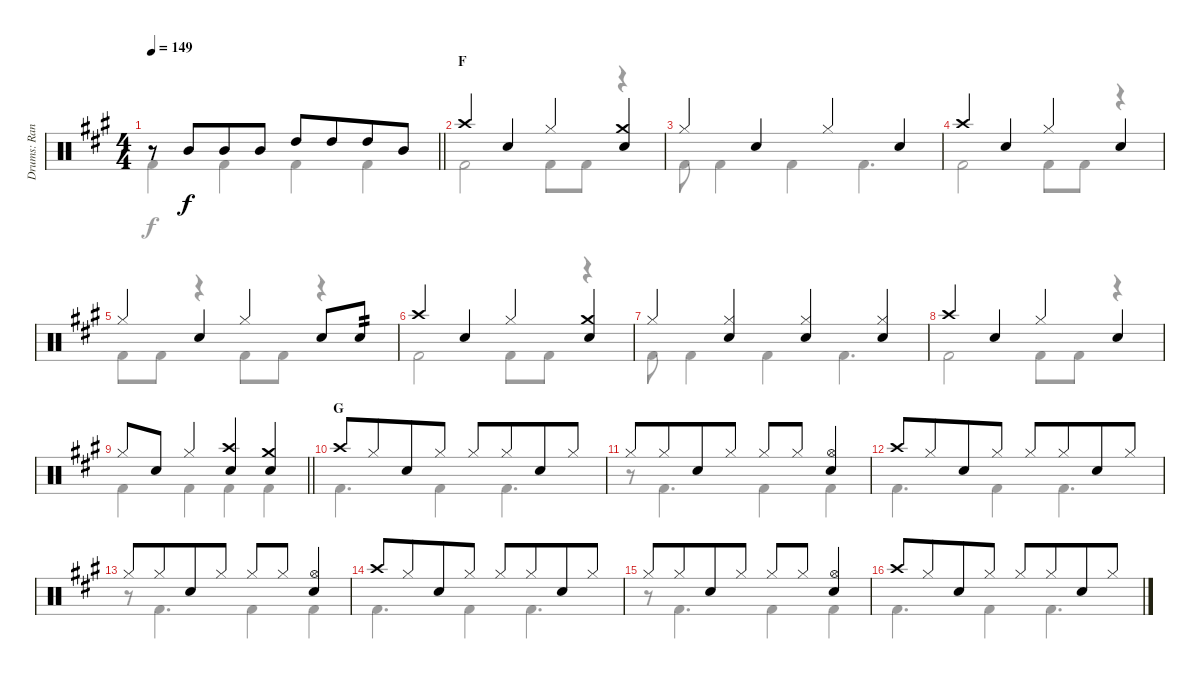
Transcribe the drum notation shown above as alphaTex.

\track ("Drums: Randy" "Drums: Ran") {instrument percussion}
\staff {score}
\articulation defaults
\voice
\ts (4 4)
\tempo 149
\clef neutral
\barLineRight lightlight
\ks a
r.8{dy f} "Mid Tom (hit)".8{beam merge} "Mid Tom (hit)".8 "Mid Tom (hit)".8 "High Tom (hit)".8 "High Tom (hit)".8{beam merge} "High Tom (hit)".8 "Mid Tom (hit)".8 |
\section ("" "F")
"Crash high (hit)".4 "Snare (hit) 2".4 "Hi-Hat (closed)".4 ("Crash medium (hit)" "Snare (hit) 2").4 |
"Hi-Hat (closed)".4 "Snare (hit) 2".4 "Hi-Hat (closed)".4 "Snare (hit) 2".4 |
"Crash high (hit)".4 "Snare (hit) 2".4 "Hi-Hat (closed)".4 "Snare (hit) 2".4 |
"Hi-Hat (closed)".4 "Snare (hit) 2".4 "Hi-Hat (closed)".4 "Snare (hit) 2".8 "Snare (hit) 2".8{tp 2} |
"Crash high (hit)".4 "Snare (hit) 2".4 "Hi-Hat (closed)".4 ("Crash medium (hit)" "Snare (hit) 2").4 |
"Hi-Hat (closed)".4 ("Hi-Hat (closed)" "Snare (hit) 2").4 ("Hi-Hat (closed)" "Snare (hit) 2").4 ("Hi-Hat (closed)" "Snare (hit) 2").4 |
"Crash high (hit)".4 "Snare (hit) 2".4 "Hi-Hat (closed)".4 "Snare (hit) 2".4 |
\barLineRight lightlight "Hi-Hat (closed)".8 "Snare (hit) 2".8 "Hi-Hat (closed)".4
("Crash high (hit)" "Snare (hit) 2").4 ("Crash medium (hit)" "Snare (hit) 2").4 |
\section ("" "G")
"Crash high (hit)".8 "Hi-Hat (closed)".8{beam merge} "Snare (hit) 2".8 "Hi-Hat (closed)".8 "Hi-Hat (closed)".8 "Hi-Hat (closed)".8{beam merge} "Snare (hit) 2".8 "Hi-Hat (closed)".8 |
"Hi-Hat (closed)".8 "Hi-Hat (closed)".8{beam merge} "Snare (hit) 2".8 "Hi-Hat (closed)".8 "Hi-Hat (closed)".8 "Hi-Hat (closed)".8 ("Hi-Hat (open)" "Snare (hit) 2").4 |
"Crash high (hit)".8 "Hi-Hat (closed)".8{beam merge} "Snare (hit) 2".8 "Hi-Hat (closed)".8 "Hi-Hat (closed)".8 "Hi-Hat (closed)".8{beam merge} "Snare (hit) 2".8 "Hi-Hat (closed)".8 |
"Hi-Hat (closed)".8 "Hi-Hat (closed)".8{beam merge} "Snare (hit) 2".8 "Hi-Hat (closed)".8 "Hi-Hat (closed)".8 "Hi-Hat (closed)".8 ("Hi-Hat (open)" "Snare (hit) 2").4 |
"Crash high (hit)".8 "Hi-Hat (closed)".8{beam merge} "Snare (hit) 2".8 "Hi-Hat (closed)".8 "Hi-Hat (closed)".8 "Hi-Hat (closed)".8{beam merge} "Snare (hit) 2".8 "Hi-Hat (closed)".8 |
"Hi-Hat (closed)".8 "Hi-Hat (closed)".8{beam merge} "Snare (hit) 2".8 "Hi-Hat (closed)".8 "Hi-Hat (closed)".8 "Hi-Hat (closed)".8 ("Hi-Hat (open)" "Snare (hit) 2").4 |
"Crash high (hit)".8 "Hi-Hat (closed)".8{beam merge} "Snare (hit) 2".8 "Hi-Hat (closed)".8 "Hi-Hat (closed)".8 "Hi-Hat (closed)".8{beam merge} "Snare (hit) 2".8 "Hi-Hat (closed)".8
\voice
\clef neutral
\ottava regular
\simile none
\barLineRight lightlight
\ks a "Kick (hit) 2".4{dy f} "Kick (hit) 2".4 "Kick (hit) 2".4 "Kick (hit) 2".4
|
"Kick (hit) 2".2 "Kick (hit) 2".8 "Kick (hit) 2".8 r.4 |
"Kick (hit) 2".8 "Kick (hit) 2".4 "Kick (hit) 2".4 "Kick (hit) 2".4{d} |
"Kick (hit) 2".2 "Kick (hit) 2".8 "Kick (hit) 2".8 r.4 |
"Kick (hit) 2".8 "Kick (hit) 2".8 r.4 "Kick (hit) 2".8 "Kick (hit) 2".8 r.4 |
"Kick (hit) 2".2 "Kick (hit) 2".8 "Kick (hit) 2".8 r.4 |
"Kick (hit) 2".8 "Kick (hit) 2".4 "Kick (hit) 2".4 "Kick (hit) 2".4{d} |
"Kick (hit) 2".2 "Kick (hit) 2".8 "Kick (hit) 2".8 r.4 |
\barLineRight lightlight "Kick (hit) 2".4 "Kick (hit) 2".4 "Kick (hit) 2".4 "Kick (hit) 2".4
|
"Kick (hit) 2".4{d} "Kick (hit) 2".4 "Kick (hit) 2".4{d} |
r.8 "Kick (hit) 2".4{d} "Kick (hit) 2".4 "Kick (hit) 2".4 |
"Kick (hit) 2".4{d} "Kick (hit) 2".4 "Kick (hit) 2".4{d} |
r.8 "Kick (hit) 2".4{d} "Kick (hit) 2".4 "Kick (hit) 2".4 |
"Kick (hit) 2".4{d} "Kick (hit) 2".4 "Kick (hit) 2".4{d} |
r.8 "Kick (hit) 2".4{d} "Kick (hit) 2".4 "Kick (hit) 2".4 |
"Kick (hit) 2".4{d} "Kick (hit) 2".4 "Kick (hit) 2".4{d}
